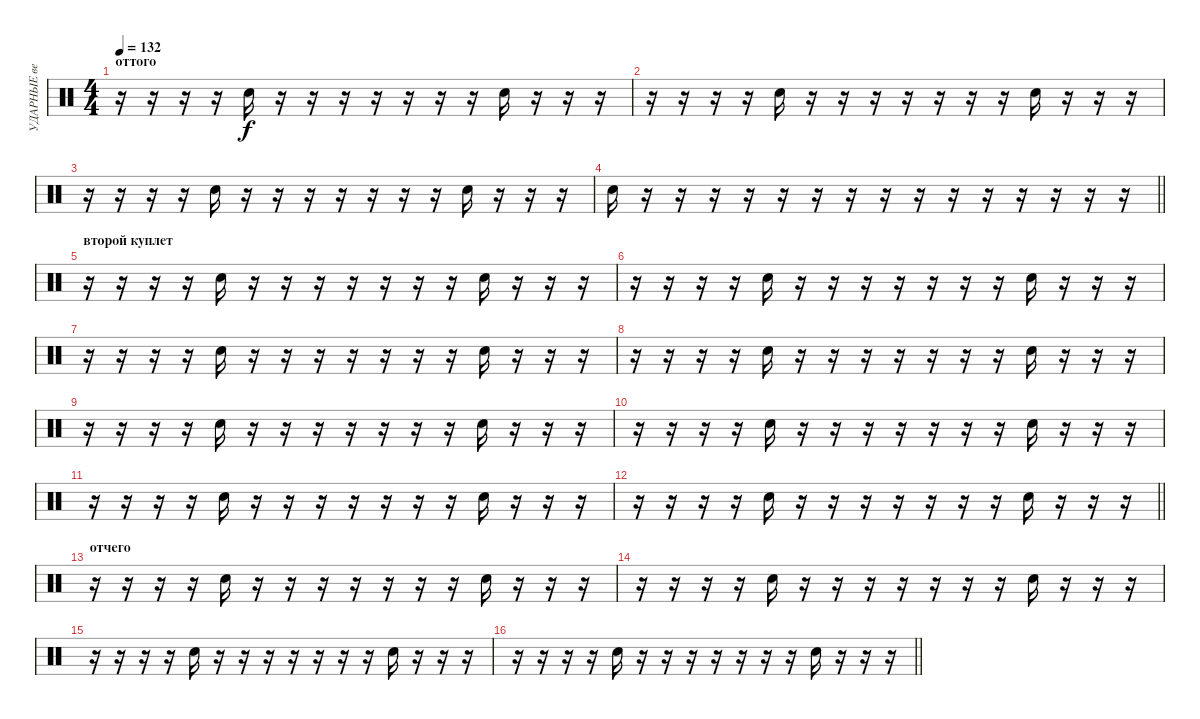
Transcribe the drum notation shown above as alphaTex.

\track ("УДАРНЫЕ ведущий" "УДАРНЫЕ ве") {instrument percussion}
\staff {score}
\articulation defaults
\ts (4 4)
\section ("" "оттого")
\tempo 132
\clef neutral
\ks c
r.16{dy f} r.16 r.16 r.16 "Snare (hit) 2".16 r.16 r.16 r.16 r.16 r.16 r.16 r.16 "Snare (hit) 2".16 r.16 r.16 r.16 |
r.16 r.16 r.16 r.16 "Snare (hit) 2".16 r.16 r.16 r.16 r.16 r.16 r.16 r.16 "Snare (hit) 2".16 r.16 r.16 r.16 |
r.16 r.16 r.16 r.16 "Snare (hit) 2".16 r.16 r.16 r.16 r.16 r.16 r.16 r.16 "Snare (hit) 2".16 r.16 r.16 r.16 |
\barLineRight lightlight "Snare (hit) 2".16
r.16 r.16 r.16 r.16 r.16 r.16 r.16 r.16 r.16 r.16 r.16 r.16 r.16 r.16 r.16 |
\section ("" "второй куплет")
r.16 r.16 r.16 r.16 "Snare (hit) 2".16 r.16 r.16 r.16 r.16 r.16 r.16 r.16 "Snare (hit) 2".16 r.16 r.16 r.16 |
r.16 r.16 r.16 r.16 "Snare (hit) 2".16 r.16 r.16 r.16 r.16 r.16 r.16 r.16 "Snare (hit) 2".16 r.16 r.16 r.16 |
r.16 r.16 r.16 r.16 "Snare (hit) 2".16 r.16 r.16 r.16 r.16 r.16 r.16 r.16 "Snare (hit) 2".16 r.16 r.16 r.16 |
r.16 r.16 r.16 r.16 "Snare (hit) 2".16 r.16 r.16 r.16 r.16 r.16 r.16 r.16 "Snare (hit) 2".16 r.16 r.16 r.16 |
r.16 r.16 r.16 r.16 "Snare (hit) 2".16 r.16 r.16 r.16 r.16 r.16 r.16 r.16 "Snare (hit) 2".16 r.16 r.16 r.16 |
r.16 r.16 r.16 r.16 "Snare (hit) 2".16 r.16 r.16 r.16 r.16 r.16 r.16 r.16 "Snare (hit) 2".16 r.16 r.16 r.16 |
r.16 r.16 r.16 r.16 "Snare (hit) 2".16 r.16 r.16 r.16 r.16 r.16 r.16 r.16 "Snare (hit) 2".16 r.16 r.16 r.16 |
\barLineRight lightlight
r.16 r.16 r.16 r.16 "Snare (hit) 2".16 r.16 r.16 r.16 r.16 r.16 r.16 r.16 "Snare (hit) 2".16 r.16 r.16 r.16 |
\section ("" "отчего")
r.16 r.16 r.16 r.16 "Snare (hit) 2".16 r.16 r.16 r.16 r.16 r.16 r.16 r.16 "Snare (hit) 2".16 r.16 r.16 r.16 |
r.16 r.16 r.16 r.16 "Snare (hit) 2".16 r.16 r.16 r.16 r.16 r.16 r.16 r.16 "Snare (hit) 2".16 r.16 r.16 r.16 |
r.16 r.16 r.16 r.16 "Snare (hit) 2".16 r.16 r.16 r.16 r.16 r.16 r.16 r.16 "Snare (hit) 2".16 r.16 r.16 r.16 |
\barLineRight lightlight
r.16 r.16 r.16 r.16 "Snare (hit) 2".16 r.16 r.16 r.16 r.16 r.16 r.16 r.16 "Snare (hit) 2".16 r.16 r.16 r.16
